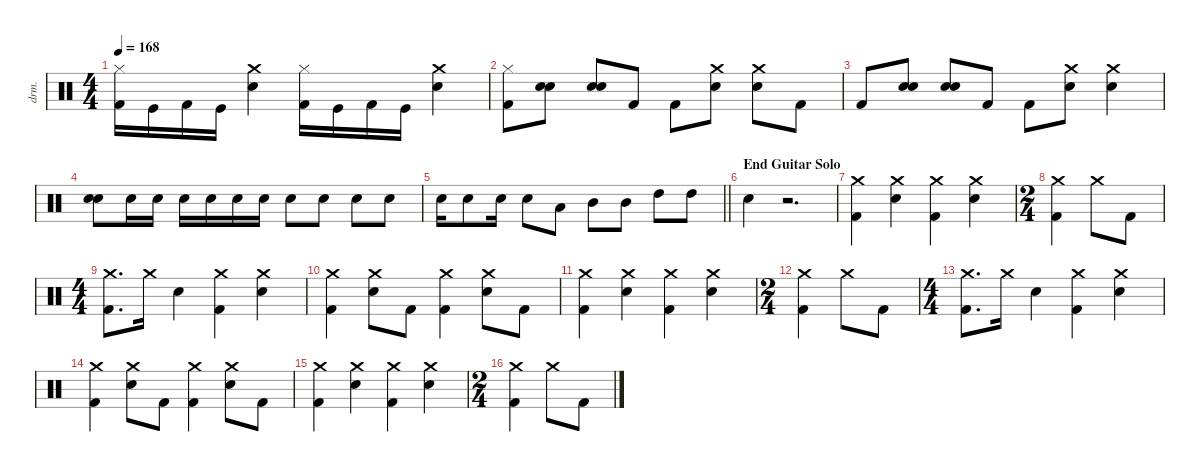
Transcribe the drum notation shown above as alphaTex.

\defaultSystemsLayout 4
\hideDynamics
\bracketExtendMode nobrackets
\otherSystemsTrackNameOrientation horizontal
\track ("Drums" "drm.") {instrument percussion}
\staff {score}
\articulation defaults
\ts (4 4)
\tempo 168
\clef neutral
\ks c
("Hi-Hat (closed)" "Kick (hit) 2").16{dy fff} "Kick (hit)".16 "Kick (hit) 2".16 "Kick (hit)".16 ("Crash medium (hit)" "Snare (hit) 2").4 ("Hi-Hat (closed)" "Kick (hit) 2").16 "Kick (hit)".16 "Kick (hit) 2".16 "Kick (hit)".16 ("Crash medium (hit)" "Snare (hit) 2").4 |
("Kick (hit) 2" "Hi-Hat (closed)").8 ("Snare (hit) 2" "Snare (hit) 2").8{dy f} ("Snare (hit) 2" "Snare (hit) 2").8 "Kick (hit) 2".8{dy fff} "Kick (hit) 2".8 ("Snare (hit) 2" "Crash medium (hit)").8 ("Snare (hit) 2" "Crash medium (hit)").8 "Kick (hit) 2".8 |
"Kick (hit) 2".8 ("Snare (hit) 2" "Snare (hit) 2").8{dy f} ("Snare (hit) 2" "Snare (hit) 2").8 "Kick (hit) 2".8{dy fff} "Kick (hit) 2".8 ("Crash medium (hit)" "Snare (hit) 2").8 ("Snare (hit) 2" "Crash medium (hit)").4 |
("Snare (hit) 2" "Snare (hit) 2").8{dy f} "Snare (hit) 2".16{dy fff} "Snare (hit) 2".16 "Snare (hit) 2".16 "Snare (hit) 2".16 "Snare (hit) 2".16 "Snare (hit) 2".16 "Snare (hit) 2".8 "Snare (hit) 2".8 "Snare (hit) 2".8 "Snare (hit) 2".8 |
\barLineRight lightlight "Snare (hit) 2".16 "Snare (hit) 2".8 "Snare (hit) 2".16 "Snare (hit) 2".8 "Low Tom (hit)".8 "Mid Tom (hit)".8 "Mid Tom (hit)".8 "High Tom (hit)".8 "High Tom (hit)".8
|
\section ("" "End Guitar Solo")
"Snare (hit) 2".4 r.2{d} |
("Kick (hit) 2" "Crash medium (hit)").4 ("Snare (hit) 2" "Crash medium (hit)").4 ("Kick (hit) 2" "Crash medium (hit)").4 ("Snare (hit) 2" "Crash medium (hit)").4 |
\ts (2 4)
\beaming (8 2 2)
("Kick (hit) 2" "Crash medium (hit)").4 "Crash medium (hit)".8 "Kick (hit) 2".8 |
\ts (4 4)
\beaming (8 2 2 2 2)
("Kick (hit) 2" "Crash medium (hit)").8{d} "Crash medium (hit)".16 "Snare (hit) 2".4 ("Kick (hit) 2" "Crash medium (hit)").4 ("Snare (hit) 2" "Crash medium (hit)").4 |
("Kick (hit) 2" "Crash medium (hit)").4 ("Snare (hit) 2" "Crash medium (hit)").8 "Kick (hit) 2".8 ("Kick (hit) 2" "Crash medium (hit)").4 ("Snare (hit) 2" "Crash medium (hit)").8 "Kick (hit) 2".8 |
("Kick (hit) 2" "Crash medium (hit)").4 ("Snare (hit) 2" "Crash medium (hit)").4 ("Kick (hit) 2" "Crash medium (hit)").4 ("Snare (hit) 2" "Crash medium (hit)").4 |
\ts (2 4)
\beaming (8 2 2)
("Kick (hit) 2" "Crash medium (hit)").4 "Crash medium (hit)".8 "Kick (hit) 2".8 |
\ts (4 4)
\beaming (8 2 2 2 2)
("Kick (hit) 2" "Crash medium (hit)").8{d} "Crash medium (hit)".16 "Snare (hit) 2".4 ("Kick (hit) 2" "Crash medium (hit)").4 ("Snare (hit) 2" "Crash medium (hit)").4 |
("Kick (hit) 2" "Crash medium (hit)").4 ("Snare (hit) 2" "Crash medium (hit)").8 "Kick (hit) 2".8 ("Kick (hit) 2" "Crash medium (hit)").4 ("Snare (hit) 2" "Crash medium (hit)").8 "Kick (hit) 2".8 |
("Kick (hit) 2" "Crash medium (hit)").4 ("Snare (hit) 2" "Crash medium (hit)").4 ("Kick (hit) 2" "Crash medium (hit)").4 ("Snare (hit) 2" "Crash medium (hit)").4 |
\ts (2 4)
\beaming (8 2 2)
("Kick (hit) 2" "Crash medium (hit)").4 "Crash medium (hit)".8 "Kick (hit) 2".8
